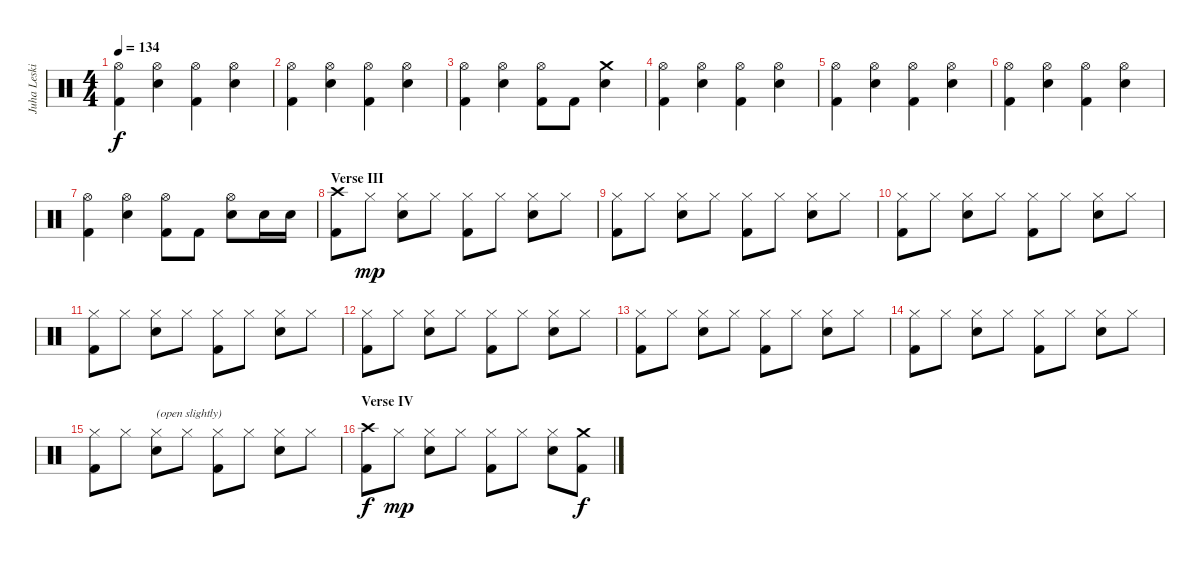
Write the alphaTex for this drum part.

\track ("Juha Leskinen - Drums" "Juha Leski") {instrument percussion}
\staff {score}
\articulation defaults
\ts (4 4)
\tempo 134
\clef neutral
\ks c
("Hi-Hat (open)" "Kick (hit) 2").4{dy f} ("Hi-Hat (open)" "Electric Snare (hit)").4 ("Hi-Hat (open)" "Kick (hit) 2").4 ("Hi-Hat (open)" "Electric Snare (hit)").4 |
("Hi-Hat (open)" "Kick (hit) 2").4 ("Hi-Hat (open)" "Electric Snare (hit)").4 ("Hi-Hat (open)" "Kick (hit) 2").4 ("Hi-Hat (open)" "Electric Snare (hit)").4 |
("Hi-Hat (open)" "Kick (hit) 2").4 ("Hi-Hat (open)" "Electric Snare (hit)").4 ("Hi-Hat (open)" "Kick (hit) 2").8 "Kick (hit) 2".8 ("Crash medium (hit)" "Electric Snare (hit)").4 |
("Hi-Hat (open)" "Kick (hit) 2").4 ("Hi-Hat (open)" "Electric Snare (hit)").4 ("Hi-Hat (open)" "Kick (hit) 2").4 ("Hi-Hat (open)" "Electric Snare (hit)").4 |
("Hi-Hat (open)" "Kick (hit) 2").4 ("Hi-Hat (open)" "Electric Snare (hit)").4 ("Hi-Hat (open)" "Kick (hit) 2").4 ("Hi-Hat (open)" "Electric Snare (hit)").4 |
("Hi-Hat (open)" "Kick (hit) 2").4 ("Hi-Hat (open)" "Electric Snare (hit)").4 ("Hi-Hat (open)" "Kick (hit) 2").4 ("Hi-Hat (open)" "Electric Snare (hit)").4 |
("Hi-Hat (open)" "Kick (hit) 2").4 ("Hi-Hat (open)" "Electric Snare (hit)").4 ("Hi-Hat (open)" "Kick (hit) 2").8 "Kick (hit) 2".8 ("Hi-Hat (open)" "Electric Snare (hit)").8 "Electric Snare (hit)".16 "Electric Snare (hit)".16 |
\section ("" "Verse III")
("Crash high (hit)" "Kick (hit) 2").8 "Hi-Hat (closed)".8{dy mp} ("Hi-Hat (closed)" "Electric Snare (hit)").8 "Hi-Hat (closed)".8 ("Hi-Hat (closed)" "Kick (hit) 2").8 "Hi-Hat (closed)".8 ("Hi-Hat (closed)" "Electric Snare (hit)").8 "Hi-Hat (closed)".8 |
("Hi-Hat (closed)" "Kick (hit) 2").8 "Hi-Hat (closed)".8 ("Hi-Hat (closed)" "Electric Snare (hit)").8 "Hi-Hat (closed)".8 ("Hi-Hat (closed)" "Kick (hit) 2").8 "Hi-Hat (closed)".8 ("Hi-Hat (closed)" "Electric Snare (hit)").8 "Hi-Hat (closed)".8 |
("Hi-Hat (closed)" "Kick (hit) 2").8 "Hi-Hat (closed)".8 ("Hi-Hat (closed)" "Electric Snare (hit)").8 "Hi-Hat (closed)".8 ("Hi-Hat (closed)" "Kick (hit) 2").8 "Hi-Hat (closed)".8 ("Hi-Hat (closed)" "Electric Snare (hit)").8 "Hi-Hat (closed)".8 |
("Hi-Hat (closed)" "Kick (hit) 2").8 "Hi-Hat (closed)".8 ("Hi-Hat (closed)" "Electric Snare (hit)").8 "Hi-Hat (closed)".8 ("Hi-Hat (closed)" "Kick (hit) 2").8 "Hi-Hat (closed)".8 ("Hi-Hat (closed)" "Electric Snare (hit)").8 "Hi-Hat (closed)".8 |
("Hi-Hat (closed)" "Kick (hit) 2").8 "Hi-Hat (closed)".8 ("Hi-Hat (closed)" "Electric Snare (hit)").8 "Hi-Hat (closed)".8 ("Hi-Hat (closed)" "Kick (hit) 2").8 "Hi-Hat (closed)".8 ("Hi-Hat (closed)" "Electric Snare (hit)").8 "Hi-Hat (closed)".8 |
("Hi-Hat (closed)" "Kick (hit) 2").8 "Hi-Hat (closed)".8 ("Hi-Hat (closed)" "Electric Snare (hit)").8 "Hi-Hat (closed)".8 ("Hi-Hat (closed)" "Kick (hit) 2").8 "Hi-Hat (closed)".8 ("Hi-Hat (closed)" "Electric Snare (hit)").8 "Hi-Hat (closed)".8 |
("Hi-Hat (closed)" "Kick (hit) 2").8 "Hi-Hat (closed)".8 ("Hi-Hat (closed)" "Electric Snare (hit)").8 "Hi-Hat (closed)".8 ("Hi-Hat (closed)" "Kick (hit) 2").8 "Hi-Hat (closed)".8 ("Hi-Hat (closed)" "Electric Snare (hit)").8 "Hi-Hat (closed)".8 |
("Hi-Hat (closed)" "Kick (hit) 2").8 "Hi-Hat (closed)".8 ("Hi-Hat (closed)" "Electric Snare (hit)").8{txt "(open slightly)"} "Hi-Hat (closed)".8 ("Hi-Hat (closed)" "Kick (hit) 2").8 "Hi-Hat (closed)".8 ("Hi-Hat (closed)" "Electric Snare (hit)").8 "Hi-Hat (closed)".8 |
\section ("" "Verse IV")
("Crash high (hit)" "Kick (hit) 2").8{dy f} "Hi-Hat (closed)".8{dy mp} ("Hi-Hat (closed)" "Electric Snare (hit)").8 "Hi-Hat (closed)".8 ("Hi-Hat (closed)" "Kick (hit) 2").8 "Hi-Hat (closed)".8 ("Hi-Hat (closed)" "Electric Snare (hit)").8 ("Crash medium (hit)" "Kick (hit) 2").8{dy f}
